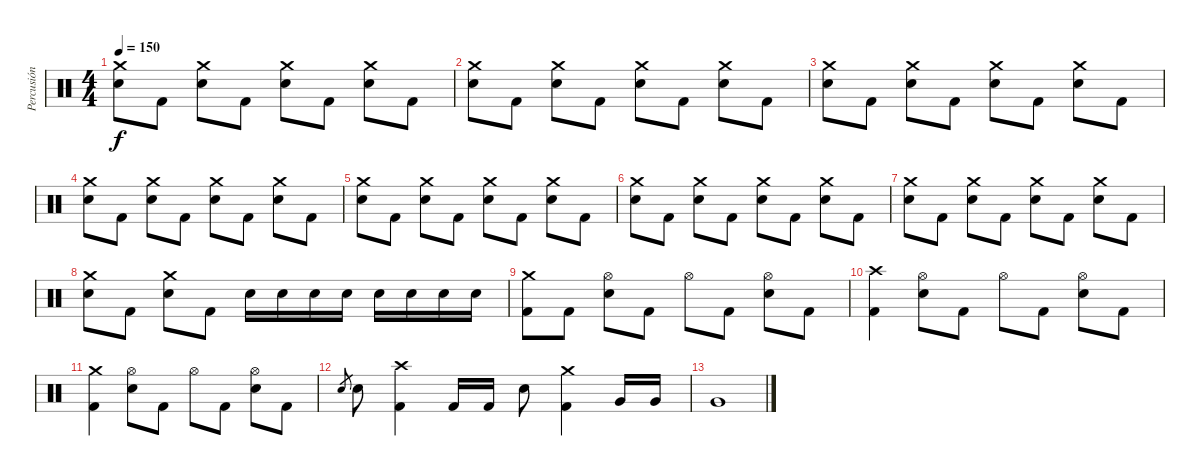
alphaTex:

\track ("Percusión" "Percusión") {instrument percussion}
\staff {score}
\articulation defaults
\ts (4 4)
\tempo 150
\clef neutral
\ks c
("Crash medium (hit)" "Electric Snare (hit)").8{dy f} "Kick (hit) 2".8 ("Crash medium (hit)" "Electric Snare (hit)").8 "Kick (hit) 2".8 ("Crash medium (hit)" "Electric Snare (hit)").8 "Kick (hit) 2".8 ("Crash medium (hit)" "Electric Snare (hit)").8 "Kick (hit) 2".8 |
("Crash medium (hit)" "Electric Snare (hit)").8 "Kick (hit) 2".8 ("Crash medium (hit)" "Electric Snare (hit)").8 "Kick (hit) 2".8 ("Crash medium (hit)" "Electric Snare (hit)").8 "Kick (hit) 2".8 ("Crash medium (hit)" "Electric Snare (hit)").8 "Kick (hit) 2".8 |
("Crash medium (hit)" "Electric Snare (hit)").8 "Kick (hit) 2".8 ("Crash medium (hit)" "Electric Snare (hit)").8 "Kick (hit) 2".8 ("Crash medium (hit)" "Electric Snare (hit)").8 "Kick (hit) 2".8 ("Crash medium (hit)" "Electric Snare (hit)").8 "Kick (hit) 2".8 |
("Crash medium (hit)" "Electric Snare (hit)").8 "Kick (hit) 2".8 ("Crash medium (hit)" "Electric Snare (hit)").8 "Kick (hit) 2".8 ("Crash medium (hit)" "Electric Snare (hit)").8 "Kick (hit) 2".8 ("Crash medium (hit)" "Electric Snare (hit)").8 "Kick (hit) 2".8 |
("Crash medium (hit)" "Electric Snare (hit)").8 "Kick (hit) 2".8 ("Crash medium (hit)" "Electric Snare (hit)").8 "Kick (hit) 2".8 ("Crash medium (hit)" "Electric Snare (hit)").8 "Kick (hit) 2".8 ("Crash medium (hit)" "Electric Snare (hit)").8 "Kick (hit) 2".8 |
("Crash medium (hit)" "Electric Snare (hit)").8 "Kick (hit) 2".8 ("Crash medium (hit)" "Electric Snare (hit)").8 "Kick (hit) 2".8 ("Crash medium (hit)" "Electric Snare (hit)").8 "Kick (hit) 2".8 ("Crash medium (hit)" "Electric Snare (hit)").8 "Kick (hit) 2".8 |
("Crash medium (hit)" "Electric Snare (hit)").8 "Kick (hit) 2".8 ("Crash medium (hit)" "Electric Snare (hit)").8 "Kick (hit) 2".8 ("Crash medium (hit)" "Electric Snare (hit)").8 "Kick (hit) 2".8 ("Crash medium (hit)" "Electric Snare (hit)").8 "Kick (hit) 2".8 |
("Crash medium (hit)" "Electric Snare (hit)").8 "Kick (hit) 2".8 ("Crash medium (hit)" "Electric Snare (hit)").8 "Kick (hit) 2".8 "Electric Snare (hit)".16 "Electric Snare (hit)".16 "Electric Snare (hit)".16 "Electric Snare (hit)".16 "Electric Snare (hit)".16 "Electric Snare (hit)".16 "Electric Snare (hit)".16 "Electric Snare (hit)".16 |
("Crash medium (hit)" "Kick (hit) 2").8 "Kick (hit) 2".8 ("Hi-Hat (open)" "Electric Snare (hit)").8 "Kick (hit) 2".8 "Hi-Hat (open)".8 "Kick (hit) 2".8 ("Hi-Hat (open)" "Electric Snare (hit)").8 "Kick (hit) 2".8 |
("Crash high (hit)" "Kick (hit) 2").4 ("Hi-Hat (open)" "Electric Snare (hit)").8 "Kick (hit) 2".8 "Hi-Hat (open)".8 "Kick (hit) 2".8 ("Hi-Hat (open)" "Electric Snare (hit)").8 "Kick (hit) 2".8 |
("Crash medium (hit)" "Kick (hit) 2").4 ("Hi-Hat (open)" "Electric Snare (hit)").8 "Kick (hit) 2".8 "Hi-Hat (open)".8 "Kick (hit) 2".8 ("Hi-Hat (open)" "Electric Snare (hit)").8 "Kick (hit) 2".8 |
"Electric Snare (hit)".8{gr} "Electric Snare (hit)".8 ("Crash high (hit)" "Kick (hit) 2").4 "Kick (hit) 2".16 "Kick (hit) 2".16 "Electric Snare (hit)".8 ("Crash medium (hit)" "Kick (hit) 2").4 "Very Low Tom (hit)".16 "Very Low Tom (hit)".16 |
"Very Low Tom (hit)".1
